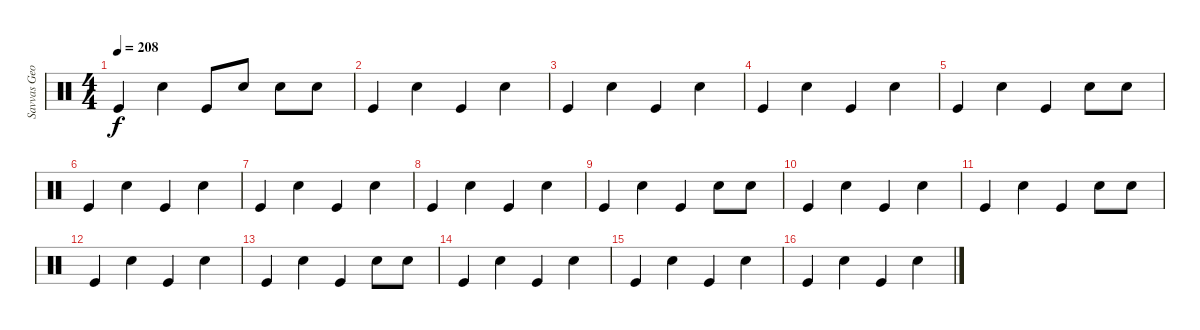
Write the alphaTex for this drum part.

\track ("Savvas Georgiadis" "Savvas Geo") {instrument percussion}
\staff {score}
\articulation defaults
\ts (4 4)
\tempo 208
\clef neutral
\ks c "Kick (hit)".4{dy f} "Snare (hit) 2".4 "Kick (hit)".8 "Snare (hit) 2".8 "Snare (hit) 2".8 "Snare (hit) 2".8
|
"Kick (hit)".4 "Snare (hit) 2".4 "Kick (hit)".4 "Snare (hit) 2".4 |
"Kick (hit)".4 "Snare (hit) 2".4 "Kick (hit)".4 "Snare (hit) 2".4 |
"Kick (hit)".4 "Snare (hit) 2".4 "Kick (hit)".4 "Snare (hit) 2".4 |
"Kick (hit)".4 "Snare (hit) 2".4 "Kick (hit)".4 "Snare (hit) 2".8 "Snare (hit) 2".8 |
"Kick (hit)".4 "Snare (hit) 2".4 "Kick (hit)".4 "Snare (hit) 2".4 |
"Kick (hit)".4 "Snare (hit) 2".4 "Kick (hit)".4 "Snare (hit) 2".4 |
"Kick (hit)".4 "Snare (hit) 2".4 "Kick (hit)".4 "Snare (hit) 2".4 |
"Kick (hit)".4 "Snare (hit) 2".4 "Kick (hit)".4 "Snare (hit) 2".8 "Snare (hit) 2".8 |
"Kick (hit)".4 "Snare (hit) 2".4 "Kick (hit)".4 "Snare (hit) 2".4 |
"Kick (hit)".4 "Snare (hit) 2".4 "Kick (hit)".4 "Snare (hit) 2".8 "Snare (hit) 2".8 |
"Kick (hit)".4 "Snare (hit) 2".4 "Kick (hit)".4 "Snare (hit) 2".4 |
"Kick (hit)".4 "Snare (hit) 2".4 "Kick (hit)".4 "Snare (hit) 2".8 "Snare (hit) 2".8 |
"Kick (hit)".4 "Snare (hit) 2".4 "Kick (hit)".4 "Snare (hit) 2".4 |
"Kick (hit)".4 "Snare (hit) 2".4 "Kick (hit)".4 "Snare (hit) 2".4 |
"Kick (hit)".4 "Snare (hit) 2".4 "Kick (hit)".4 "Snare (hit) 2".4
